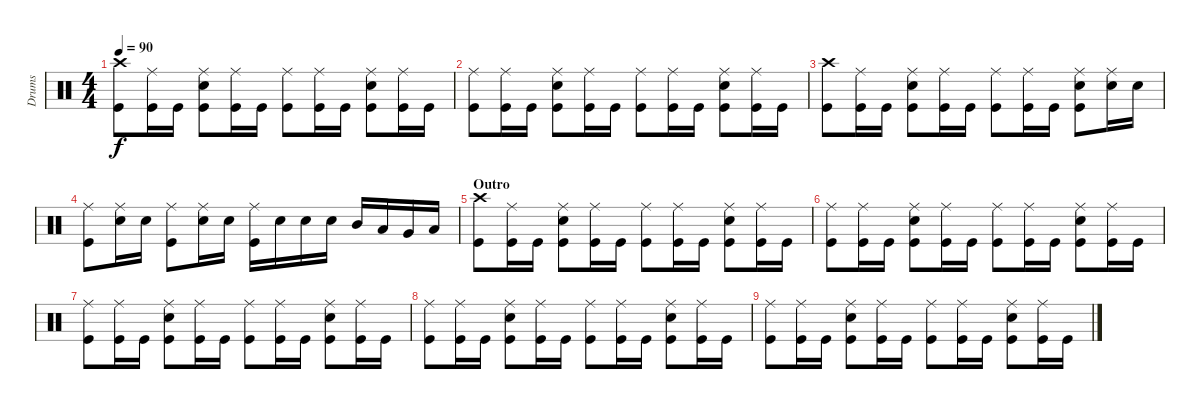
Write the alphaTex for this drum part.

\track ("Drums" "Drums") {instrument percussion}
\staff {score}
\articulation defaults
\ts (4 4)
\tempo 90
\clef neutral
\ks c
("Crash high (hit)" "Kick (hit)").8{dy f} ("Ride (middle)" "Kick (hit)").16 "Kick (hit)".16 ("Ride (middle)" "Electric Snare (hit)" "Kick (hit)").8 ("Ride (middle)" "Kick (hit)").16 "Kick (hit)".16 ("Ride (middle)" "Kick (hit)").8 ("Ride (middle)" "Kick (hit)").16 "Kick (hit)".16 ("Ride (middle)" "Electric Snare (hit)" "Kick (hit)").8 ("Ride (middle)" "Kick (hit)").16 "Kick (hit)".16 |
("Ride (middle)" "Kick (hit)").8 ("Ride (middle)" "Kick (hit)").16 "Kick (hit)".16 ("Ride (middle)" "Electric Snare (hit)" "Kick (hit)").8 ("Ride (middle)" "Kick (hit)").16 "Kick (hit)".16 ("Ride (middle)" "Kick (hit)").8 ("Ride (middle)" "Kick (hit)").16 "Kick (hit)".16 ("Ride (middle)" "Electric Snare (hit)" "Kick (hit)").8 ("Ride (middle)" "Kick (hit)").16 "Kick (hit)".16 |
("Crash high (hit)" "Kick (hit)").8 ("Ride (middle)" "Kick (hit)").16 "Kick (hit)".16 ("Ride (middle)" "Electric Snare (hit)" "Kick (hit)").8 ("Ride (middle)" "Kick (hit)").16 "Kick (hit)".16 ("Ride (middle)" "Kick (hit)").8 ("Ride (middle)" "Kick (hit)").16 "Kick (hit)".16 ("Ride (middle)" "Electric Snare (hit)" "Kick (hit)").8 ("Ride (middle)" "Electric Snare (hit)").16 "Electric Snare (hit)".16 |
("Ride (middle)" "Kick (hit)").8 ("Ride (middle)" "Electric Snare (hit)").16 "Electric Snare (hit)".16 ("Ride (middle)" "Kick (hit)").8 ("Ride (middle)" "Electric Snare (hit)").16 "Electric Snare (hit)".16 ("Ride (middle)" "Kick (hit)").16 "Electric Snare (hit)".16 "Electric Snare (hit)".16 "Electric Snare (hit)".16 "Mid Tom (hit)".16 "Low Tom (hit)".16 "Very Low Tom (hit)".16 "Low Floor Tom (hit)".16 |
\section ("" "Outro")
("Crash high (hit)" "Kick (hit)").8{volume 0} ("Ride (middle)" "Kick (hit)").16 "Kick (hit)".16 ("Ride (middle)" "Electric Snare (hit)" "Kick (hit)").8 ("Ride (middle)" "Kick (hit)").16 "Kick (hit)".16 ("Ride (middle)" "Kick (hit)").8 ("Ride (middle)" "Kick (hit)").16 "Kick (hit)".16 ("Ride (middle)" "Electric Snare (hit)" "Kick (hit)").8 ("Ride (middle)" "Kick (hit)").16 "Kick (hit)".16 |
("Ride (middle)" "Kick (hit)").8 ("Ride (middle)" "Kick (hit)").16 "Kick (hit)".16 ("Ride (middle)" "Electric Snare (hit)" "Kick (hit)").8 ("Ride (middle)" "Kick (hit)").16 "Kick (hit)".16 ("Ride (middle)" "Kick (hit)").8 ("Ride (middle)" "Kick (hit)").16 "Kick (hit)".16 ("Ride (middle)" "Electric Snare (hit)" "Kick (hit)").8 ("Ride (middle)" "Kick (hit)").16 "Kick (hit)".16 |
("Ride (middle)" "Kick (hit)").8 ("Ride (middle)" "Kick (hit)").16 "Kick (hit)".16 ("Ride (middle)" "Electric Snare (hit)" "Kick (hit)").8 ("Ride (middle)" "Kick (hit)").16 "Kick (hit)".16 ("Ride (middle)" "Kick (hit)").8 ("Ride (middle)" "Kick (hit)").16 "Kick (hit)".16 ("Ride (middle)" "Electric Snare (hit)" "Kick (hit)").8 ("Ride (middle)" "Kick (hit)").16 "Kick (hit)".16 |
("Ride (middle)" "Kick (hit)").8 ("Ride (middle)" "Kick (hit)").16 "Kick (hit)".16 ("Ride (middle)" "Electric Snare (hit)" "Kick (hit)").8 ("Ride (middle)" "Kick (hit)").16 "Kick (hit)".16 ("Ride (middle)" "Kick (hit)").8 ("Ride (middle)" "Kick (hit)").16 "Kick (hit)".16 ("Ride (middle)" "Electric Snare (hit)" "Kick (hit)").8 ("Ride (middle)" "Kick (hit)").16 "Kick (hit)".16 |
("Ride (middle)" "Kick (hit)").8 ("Ride (middle)" "Kick (hit)").16 "Kick (hit)".16 ("Ride (middle)" "Electric Snare (hit)" "Kick (hit)").8 ("Ride (middle)" "Kick (hit)").16 "Kick (hit)".16 ("Ride (middle)" "Kick (hit)").8 ("Ride (middle)" "Kick (hit)").16 "Kick (hit)".16 ("Ride (middle)" "Electric Snare (hit)" "Kick (hit)").8 ("Ride (middle)" "Kick (hit)").16 "Kick (hit)".16
